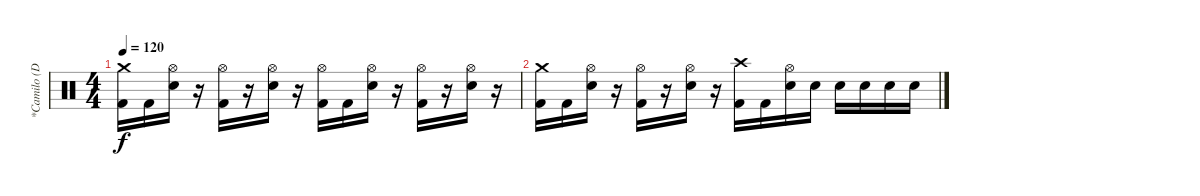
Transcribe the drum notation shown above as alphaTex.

\track ("*Camilo (Drums)" "*Camilo (D") {instrument percussion}
\staff {score}
\articulation defaults
\ts (4 4)
\tempo 120
\clef neutral
\ks c
("Crash medium (hit)" "Kick (hit) 2").16{dy f} "Kick (hit) 2".16 ("Hi-Hat (open)" "Electric Snare (hit)").16 r.16 ("Hi-Hat (open)" "Kick (hit) 2").16 r.16 ("Hi-Hat (open)" "Electric Snare (hit)").16 r.16 ("Hi-Hat (open)" "Kick (hit) 2").16 "Kick (hit) 2".16 ("Hi-Hat (open)" "Electric Snare (hit)").16 r.16 ("Hi-Hat (open)" "Kick (hit) 2").16 r.16 ("Hi-Hat (open)" "Electric Snare (hit)").16 r.16 |
("Crash medium (hit)" "Kick (hit) 2").16 "Kick (hit) 2".16 ("Hi-Hat (open)" "Electric Snare (hit)").16 r.16 ("Hi-Hat (open)" "Kick (hit) 2").16 r.16 ("Hi-Hat (open)" "Electric Snare (hit)").16 r.16 ("Crash high (hit)" "Kick (hit) 2").16 "Kick (hit) 2".16 ("Hi-Hat (open)" "Electric Snare (hit)").16 "Electric Snare (hit)".16 "Electric Snare (hit)".16 "Electric Snare (hit)".16 "Electric Snare (hit)".16 "Electric Snare (hit)".16
